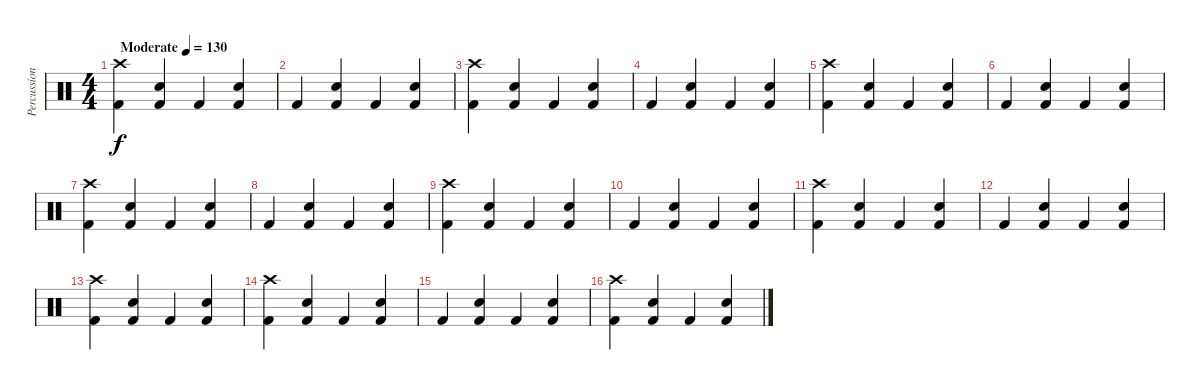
\track ("Percussion" "Percussion") {instrument percussion}
\staff {score}
\articulation defaults
\ts (4 4)
\tempo (130 "Moderate")
\clef neutral
\ks c
("Crash high (hit)" "Kick (hit) 2").4{dy f} ("Kick (hit) 2" "Snare (hit) 2").4 "Kick (hit) 2".4 ("Kick (hit) 2" "Snare (hit) 2").4 |
"Kick (hit) 2".4 ("Kick (hit) 2" "Snare (hit) 2").4 "Kick (hit) 2".4 ("Kick (hit) 2" "Snare (hit) 2").4 |
("Crash high (hit)" "Kick (hit) 2").4 ("Kick (hit) 2" "Snare (hit) 2").4 "Kick (hit) 2".4 ("Kick (hit) 2" "Snare (hit) 2").4 |
"Kick (hit) 2".4 ("Kick (hit) 2" "Snare (hit) 2").4 "Kick (hit) 2".4 ("Kick (hit) 2" "Snare (hit) 2").4 |
("Crash high (hit)" "Kick (hit) 2").4 ("Kick (hit) 2" "Snare (hit) 2").4 "Kick (hit) 2".4 ("Kick (hit) 2" "Snare (hit) 2").4 |
"Kick (hit) 2".4 ("Kick (hit) 2" "Snare (hit) 2").4 "Kick (hit) 2".4 ("Kick (hit) 2" "Snare (hit) 2").4 |
("Crash high (hit)" "Kick (hit) 2").4 ("Kick (hit) 2" "Snare (hit) 2").4 "Kick (hit) 2".4 ("Kick (hit) 2" "Snare (hit) 2").4 |
"Kick (hit) 2".4 ("Kick (hit) 2" "Snare (hit) 2").4 "Kick (hit) 2".4 ("Kick (hit) 2" "Snare (hit) 2").4 |
("Crash high (hit)" "Kick (hit) 2").4 ("Kick (hit) 2" "Snare (hit) 2").4 "Kick (hit) 2".4 ("Kick (hit) 2" "Snare (hit) 2").4 |
"Kick (hit) 2".4 ("Kick (hit) 2" "Snare (hit) 2").4 "Kick (hit) 2".4 ("Kick (hit) 2" "Snare (hit) 2").4 |
("Crash high (hit)" "Kick (hit) 2").4 ("Kick (hit) 2" "Snare (hit) 2").4 "Kick (hit) 2".4 ("Kick (hit) 2" "Snare (hit) 2").4 |
"Kick (hit) 2".4 ("Kick (hit) 2" "Snare (hit) 2").4 "Kick (hit) 2".4 ("Kick (hit) 2" "Snare (hit) 2").4 |
("Crash high (hit)" "Kick (hit) 2").4 ("Kick (hit) 2" "Snare (hit) 2").4 "Kick (hit) 2".4 ("Kick (hit) 2" "Snare (hit) 2").4 |
("Crash high (hit)" "Kick (hit) 2").4 ("Kick (hit) 2" "Snare (hit) 2").4 "Kick (hit) 2".4 ("Kick (hit) 2" "Snare (hit) 2").4 |
"Kick (hit) 2".4 ("Kick (hit) 2" "Snare (hit) 2").4 "Kick (hit) 2".4 ("Kick (hit) 2" "Snare (hit) 2").4 |
("Crash high (hit)" "Kick (hit) 2").4 ("Kick (hit) 2" "Snare (hit) 2").4 "Kick (hit) 2".4 ("Kick (hit) 2" "Snare (hit) 2").4
